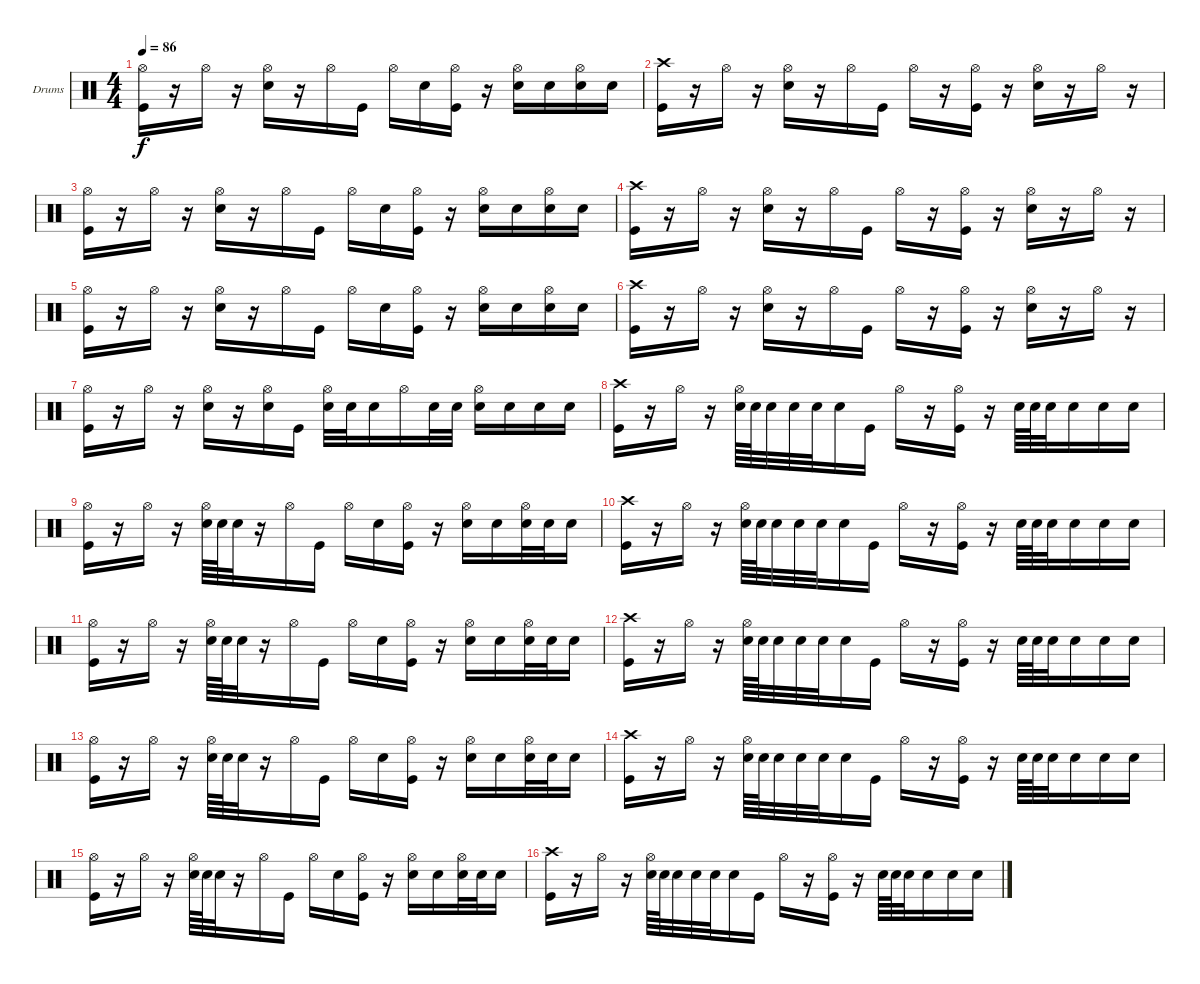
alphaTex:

\defaultSystemsLayout 4
\bracketExtendMode groupsimilarinstruments
\firstSystemTrackNameOrientation horizontal
\otherSystemsTrackNameOrientation horizontal
\track ("Rocky Gray (Drums)" "Drums") {instrument percussion}
\staff {score}
\articulation defaults
\ts (4 4)
\tempo 86
\clef neutral
\scale
0.333333
\ks c
("Hi-Hat (open)" "Kick (hit)").16{dy f} r.16 "Hi-Hat (open)".16 r.16 ("Hi-Hat (open)" "Snare (hit) 2").16 r.16 "Hi-Hat (open)".16 "Kick (hit)".16 "Hi-Hat (open)".16 "Snare (hit) 2".16 ("Hi-Hat (open)" "Kick (hit)").16 r.16 ("Hi-Hat (open)" "Snare (hit) 2").16 "Snare (hit) 2".16 ("Hi-Hat (open)" "Snare (hit) 2").16 "Snare (hit) 2".16 |
\scale
0.333333 ("Crash high (hit)" "Kick (hit)").16 r.16 "Hi-Hat (open)".16 r.16 ("Hi-Hat (open)" "Snare (hit) 2").16 r.16 "Hi-Hat (open)".16 "Kick (hit)".16 "Hi-Hat (open)".16 r.16 ("Hi-Hat (open)" "Kick (hit)").16 r.16 ("Hi-Hat (open)" "Snare (hit) 2").16 r.16 "Hi-Hat (open)".16 r.16 |
\scale
0.333333 ("Hi-Hat (open)" "Kick (hit)").16 r.16 "Hi-Hat (open)".16 r.16 ("Hi-Hat (open)" "Snare (hit) 2").16 r.16 "Hi-Hat (open)".16 "Kick (hit)".16 "Hi-Hat (open)".16 "Snare (hit) 2".16 ("Hi-Hat (open)" "Kick (hit)").16 r.16 ("Hi-Hat (open)" "Snare (hit) 2").16 "Snare (hit) 2".16 ("Hi-Hat (open)" "Snare (hit) 2").16 "Snare (hit) 2".16 |
\scale
0.333333 ("Crash high (hit)" "Kick (hit)").16 r.16 "Hi-Hat (open)".16 r.16 ("Hi-Hat (open)" "Snare (hit) 2").16 r.16 "Hi-Hat (open)".16 "Kick (hit)".16 "Hi-Hat (open)".16 r.16 ("Hi-Hat (open)" "Kick (hit)").16 r.16 ("Hi-Hat (open)" "Snare (hit) 2").16 r.16 "Hi-Hat (open)".16 r.16 |
\scale
0.333333 ("Hi-Hat (open)" "Kick (hit)").16 r.16 "Hi-Hat (open)".16 r.16 ("Hi-Hat (open)" "Snare (hit) 2").16 r.16 "Hi-Hat (open)".16 "Kick (hit)".16 "Hi-Hat (open)".16 "Snare (hit) 2".16 ("Hi-Hat (open)" "Kick (hit)").16 r.16 ("Hi-Hat (open)" "Snare (hit) 2").16 "Snare (hit) 2".16 ("Hi-Hat (open)" "Snare (hit) 2").16 "Snare (hit) 2".16 |
\scale
0.333333 ("Crash high (hit)" "Kick (hit)").16 r.16 "Hi-Hat (open)".16 r.16 ("Hi-Hat (open)" "Snare (hit) 2").16 r.16 "Hi-Hat (open)".16 "Kick (hit)".16 "Hi-Hat (open)".16 r.16 ("Hi-Hat (open)" "Kick (hit)").16 r.16 ("Hi-Hat (open)" "Snare (hit) 2").16 r.16 "Hi-Hat (open)".16 r.16 |
\scale
0.333333 ("Hi-Hat (open)" "Kick (hit)").16 r.16 "Hi-Hat (open)".16 r.16 ("Hi-Hat (open)" "Snare (hit) 2").16 r.16 ("Hi-Hat (open)" "Snare (hit) 2").16 "Kick (hit)".16 ("Hi-Hat (open)" "Snare (hit) 2").32 "Snare (hit) 2".32 "Snare (hit) 2".16 "Hi-Hat (open)".16 "Snare (hit) 2".32 "Snare (hit) 2".32 ("Hi-Hat (open)" "Snare (hit) 2").16 "Snare (hit) 2".16 "Snare (hit) 2".16 "Snare (hit) 2".16 |
\scale
0.333333 ("Crash high (hit)" "Kick (hit)").16 r.16 "Hi-Hat (open)".16 r.16 ("Hi-Hat (open)" "Snare (hit) 2").64 "Snare (hit) 2".64 "Snare (hit) 2".32 "Snare (hit) 2".32 "Snare (hit) 2".32 "Snare (hit) 2".16 "Kick (hit)".16 "Hi-Hat (open)".16 r.16 ("Hi-Hat (open)" "Kick (hit)").16 r.16 "Snare (hit) 2".64 "Snare (hit) 2".64 "Snare (hit) 2".32 "Snare (hit) 2".16 "Snare (hit) 2".16 "Snare (hit) 2".16 |
\scale
0.333333 ("Hi-Hat (open)" "Kick (hit)").16 r.16 "Hi-Hat (open)".16 r.16 ("Hi-Hat (open)" "Snare (hit) 2").64 "Snare (hit) 2".64 "Snare (hit) 2".32 r.16 "Hi-Hat (open)".16 "Kick (hit)".16 "Hi-Hat (open)".16 "Snare (hit) 2".16 ("Hi-Hat (open)" "Kick (hit)").16 r.16 ("Hi-Hat (open)" "Snare (hit) 2").16 "Snare (hit) 2".16 ("Hi-Hat (open)" "Snare (hit) 2").32 "Snare (hit) 2".32 "Snare (hit) 2".16 |
\scale
0.333333 ("Crash high (hit)" "Kick (hit)").16 r.16 "Hi-Hat (open)".16 r.16 ("Hi-Hat (open)" "Snare (hit) 2").64 "Snare (hit) 2".64 "Snare (hit) 2".32 "Snare (hit) 2".32 "Snare (hit) 2".32 "Snare (hit) 2".16 "Kick (hit)".16 "Hi-Hat (open)".16 r.16 ("Hi-Hat (open)" "Kick (hit)").16 r.16 "Snare (hit) 2".64 "Snare (hit) 2".64 "Snare (hit) 2".32 "Snare (hit) 2".16 "Snare (hit) 2".16 "Snare (hit) 2".16 |
\scale
0.333333 ("Hi-Hat (open)" "Kick (hit)").16 r.16 "Hi-Hat (open)".16 r.16 ("Hi-Hat (open)" "Snare (hit) 2").64 "Snare (hit) 2".64 "Snare (hit) 2".32 r.16 "Hi-Hat (open)".16 "Kick (hit)".16 "Hi-Hat (open)".16 "Snare (hit) 2".16 ("Hi-Hat (open)" "Kick (hit)").16 r.16 ("Hi-Hat (open)" "Snare (hit) 2").16 "Snare (hit) 2".16 ("Hi-Hat (open)" "Snare (hit) 2").32 "Snare (hit) 2".32 "Snare (hit) 2".16 |
\scale
0.333333 ("Crash high (hit)" "Kick (hit)").16 r.16 "Hi-Hat (open)".16 r.16 ("Hi-Hat (open)" "Snare (hit) 2").64 "Snare (hit) 2".64 "Snare (hit) 2".32 "Snare (hit) 2".32 "Snare (hit) 2".32 "Snare (hit) 2".16 "Kick (hit)".16 "Hi-Hat (open)".16 r.16 ("Hi-Hat (open)" "Kick (hit)").16 r.16 "Snare (hit) 2".64 "Snare (hit) 2".64 "Snare (hit) 2".32 "Snare (hit) 2".16 "Snare (hit) 2".16 "Snare (hit) 2".16 |
\scale
0.333333 ("Hi-Hat (open)" "Kick (hit)").16 r.16 "Hi-Hat (open)".16 r.16 ("Hi-Hat (open)" "Snare (hit) 2").64 "Snare (hit) 2".64 "Snare (hit) 2".32 r.16 "Hi-Hat (open)".16 "Kick (hit)".16 "Hi-Hat (open)".16 "Snare (hit) 2".16 ("Hi-Hat (open)" "Kick (hit)").16 r.16 ("Hi-Hat (open)" "Snare (hit) 2").16 "Snare (hit) 2".16 ("Hi-Hat (open)" "Snare (hit) 2").32 "Snare (hit) 2".32 "Snare (hit) 2".16 |
\scale
0.333333 ("Crash high (hit)" "Kick (hit)").16 r.16 "Hi-Hat (open)".16 r.16 ("Hi-Hat (open)" "Snare (hit) 2").64 "Snare (hit) 2".64 "Snare (hit) 2".32 "Snare (hit) 2".32 "Snare (hit) 2".32 "Snare (hit) 2".16 "Kick (hit)".16 "Hi-Hat (open)".16 r.16 ("Hi-Hat (open)" "Kick (hit)").16 r.16 "Snare (hit) 2".64 "Snare (hit) 2".64 "Snare (hit) 2".32 "Snare (hit) 2".16 "Snare (hit) 2".16 "Snare (hit) 2".16 |
\scale
0.333333 ("Hi-Hat (open)" "Kick (hit)").16 r.16 "Hi-Hat (open)".16 r.16 ("Hi-Hat (open)" "Snare (hit) 2").64 "Snare (hit) 2".64 "Snare (hit) 2".32 r.16 "Hi-Hat (open)".16 "Kick (hit)".16 "Hi-Hat (open)".16 "Snare (hit) 2".16 ("Hi-Hat (open)" "Kick (hit)").16 r.16 ("Hi-Hat (open)" "Snare (hit) 2").16 "Snare (hit) 2".16 ("Hi-Hat (open)" "Snare (hit) 2").32 "Snare (hit) 2".32 "Snare (hit) 2".16 |
\scale
0.333333 ("Crash high (hit)" "Kick (hit)").16 r.16 "Hi-Hat (open)".16 r.16 ("Hi-Hat (open)" "Snare (hit) 2").64 "Snare (hit) 2".64 "Snare (hit) 2".32 "Snare (hit) 2".32 "Snare (hit) 2".32 "Snare (hit) 2".16 "Kick (hit)".16 "Hi-Hat (open)".16 r.16 ("Hi-Hat (open)" "Kick (hit)").16 r.16 "Snare (hit) 2".64 "Snare (hit) 2".64 "Snare (hit) 2".32 "Snare (hit) 2".16 "Snare (hit) 2".16 "Snare (hit) 2".16
